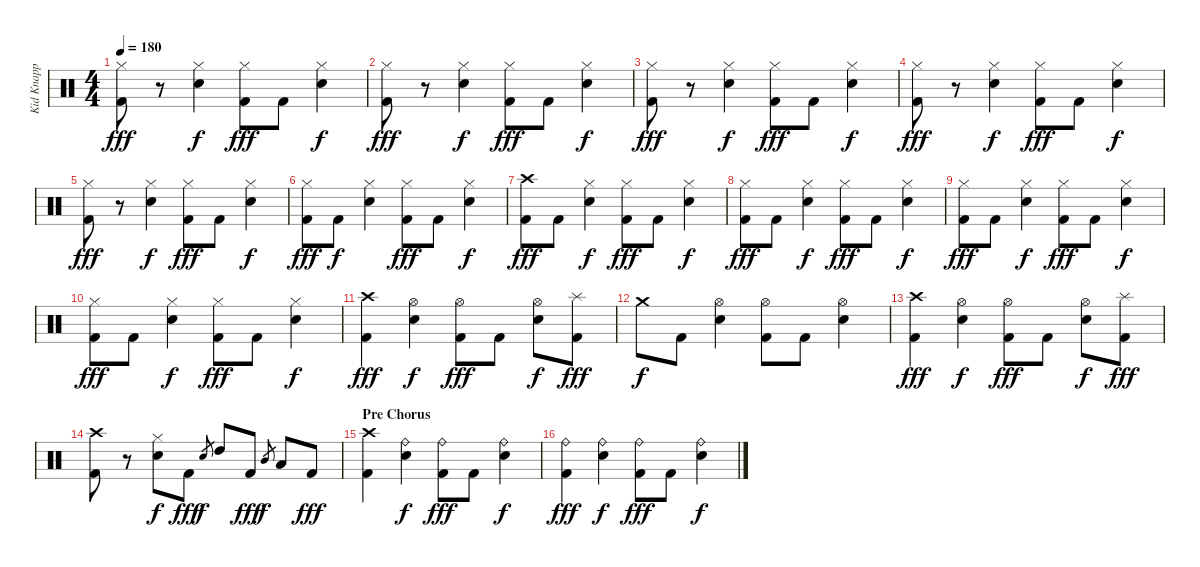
\track ("Kid Knapp (Drums)" "Kid Knapp ") {instrument percussion}
\staff {score}
\articulation defaults
\ts (4 4)
\tempo 180
\clef neutral
\ks c
("Hi-Hat (closed)" "Kick (hit) 2").8{dy fff} r.8 ("Hi-Hat (closed)" "Snare (hit) 2").4{dy f} ("Hi-Hat (closed)" "Kick (hit) 2").8{dy fff} "Kick (hit) 2".8 ("Hi-Hat (closed)" "Snare (hit) 2").4{dy f} |
("Hi-Hat (closed)" "Kick (hit) 2").8{dy fff} r.8 ("Hi-Hat (closed)" "Snare (hit) 2").4{dy f} ("Hi-Hat (closed)" "Kick (hit) 2").8{dy fff} "Kick (hit) 2".8 ("Hi-Hat (closed)" "Snare (hit) 2").4{dy f} |
("Hi-Hat (closed)" "Kick (hit) 2").8{dy fff} r.8 ("Hi-Hat (closed)" "Snare (hit) 2").4{dy f} ("Hi-Hat (closed)" "Kick (hit) 2").8{dy fff} "Kick (hit) 2".8 ("Hi-Hat (closed)" "Snare (hit) 2").4{dy f} |
("Hi-Hat (closed)" "Kick (hit) 2").8{dy fff} r.8 ("Hi-Hat (closed)" "Snare (hit) 2").4{dy f} ("Hi-Hat (closed)" "Kick (hit) 2").8{dy fff} "Kick (hit) 2".8 ("Hi-Hat (closed)" "Snare (hit) 2").4{dy f} |
("Hi-Hat (closed)" "Kick (hit) 2").8{dy fff} r.8 ("Hi-Hat (closed)" "Snare (hit) 2").4{dy f} ("Hi-Hat (closed)" "Kick (hit) 2").8{dy fff} "Kick (hit) 2".8 ("Hi-Hat (closed)" "Snare (hit) 2").4{dy f} |
("Hi-Hat (closed)" "Kick (hit) 2").8{dy fff} "Kick (hit) 2".8{dy f} ("Hi-Hat (closed)" "Snare (hit) 2").4 ("Hi-Hat (closed)" "Kick (hit) 2").8{dy fff} "Kick (hit) 2".8 ("Hi-Hat (closed)" "Snare (hit) 2").4{dy f} |
("Crash high (hit)" "Kick (hit) 2").8{dy fff} "Kick (hit) 2".8 ("Hi-Hat (closed)" "Snare (hit) 2").4{dy f} ("Hi-Hat (closed)" "Kick (hit) 2").8{dy fff} "Kick (hit) 2".8 ("Hi-Hat (closed)" "Snare (hit) 2").4{dy f} |
("Hi-Hat (closed)" "Kick (hit) 2").8{dy fff} "Kick (hit) 2".8 ("Hi-Hat (closed)" "Snare (hit) 2").4{dy f} ("Hi-Hat (closed)" "Kick (hit) 2").8{dy fff} "Kick (hit) 2".8 ("Hi-Hat (closed)" "Snare (hit) 2").4{dy f} |
("Hi-Hat (closed)" "Kick (hit) 2").8{dy fff} "Kick (hit) 2".8 ("Hi-Hat (closed)" "Snare (hit) 2").4{dy f} ("Hi-Hat (closed)" "Kick (hit) 2").8{dy fff} "Kick (hit) 2".8 ("Hi-Hat (closed)" "Snare (hit) 2").4{dy f} |
("Hi-Hat (closed)" "Kick (hit) 2").8{dy fff} "Kick (hit) 2".8 ("Hi-Hat (closed)" "Snare (hit) 2").4{dy f} ("Hi-Hat (closed)" "Kick (hit) 2").8{dy fff} "Kick (hit) 2".8 ("Hi-Hat (closed)" "Snare (hit) 2").4{dy f} |
("Crash high (hit)" "Kick (hit) 2").4{dy fff} ("Hi-Hat (open)" "Snare (hit) 2").4{dy f} ("Hi-Hat (open)" "Kick (hit) 2").8{dy fff} "Kick (hit) 2".8 ("Hi-Hat (open)" "Snare (hit) 2").8{dy f} ("Splash (hit)" "Kick (hit) 2").8{dy fff} |
"Crash medium (hit)".8{dy f} "Kick (hit) 2".8 ("Hi-Hat (open)" "Snare (hit) 2").4 ("Hi-Hat (open)" "Kick (hit) 2").8 "Kick (hit) 2".8 ("Hi-Hat (open)" "Snare (hit) 2").4 |
("Crash high (hit)" "Kick (hit) 2").4{dy fff} ("Hi-Hat (open)" "Snare (hit) 2").4{dy f} ("Hi-Hat (open)" "Kick (hit) 2").8{dy fff} "Kick (hit) 2".8 ("Hi-Hat (open)" "Snare (hit) 2").8{dy f} ("Splash (hit)" "Kick (hit) 2").8{dy fff} |
("Crash high (hit)" "Kick (hit) 2").8 r.8 ("Hi-Hat (closed)" "Snare (hit) 2").8{dy f} "Kick (hit) 2".8{dy fff} "Snare (hit) 2".8{gr dy f} "High Tom (hit)".8 "Kick (hit) 2".8{dy fff} "Mid Tom (hit)".8{gr dy f} "Low Tom (hit)".8 "Kick (hit) 2".8{dy fff} |
\section ("" "Pre Chorus")
("Crash high (hit)" "Kick (hit) 2").4 ("Ride (bell)" "Snare (hit) 2").4{dy f} ("Ride (bell)" "Kick (hit) 2").8{dy fff} "Kick (hit) 2".8 ("Ride (bell)" "Snare (hit) 2").4{dy f} |
("Ride (bell)" "Kick (hit) 2").4{dy fff} ("Ride (bell)" "Snare (hit) 2").4{dy f} ("Ride (bell)" "Kick (hit) 2").8{dy fff} "Kick (hit) 2".8 ("Ride (bell)" "Snare (hit) 2").4{dy f}
